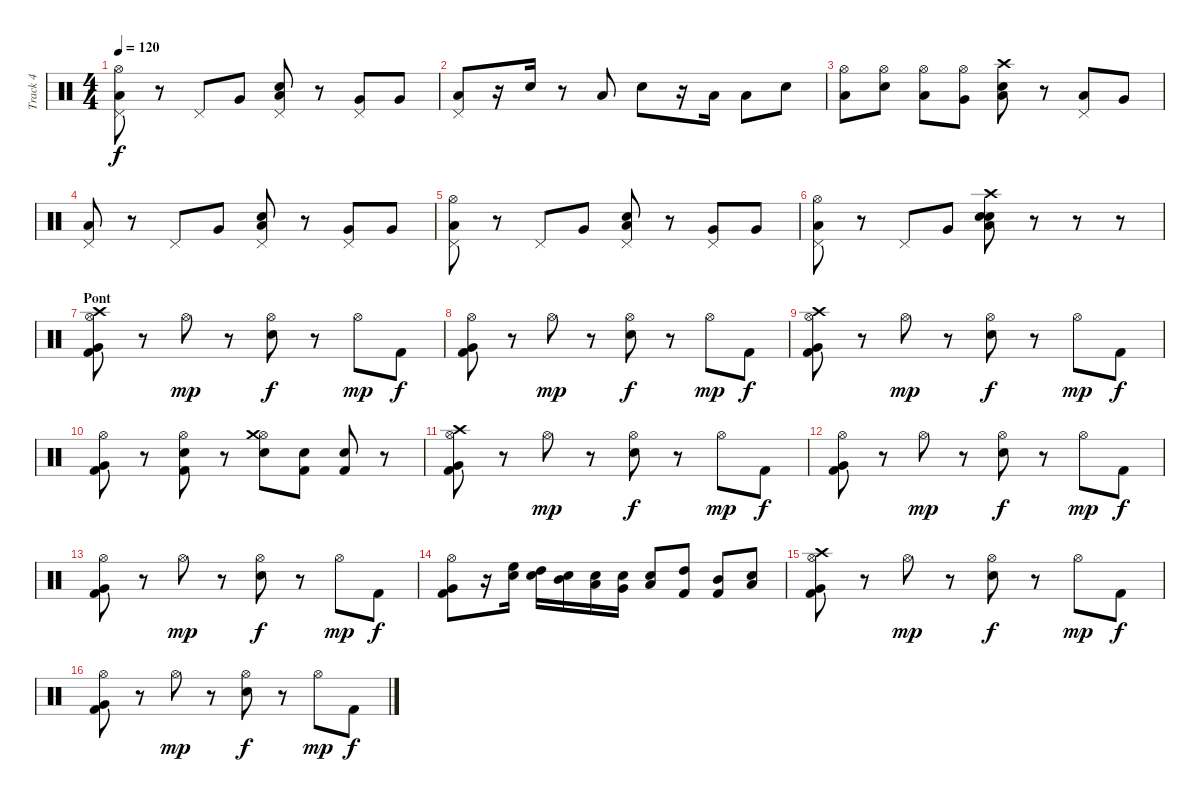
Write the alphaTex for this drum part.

\track ("Track 4" "Track 4") {instrument percussion}
\staff {score}
\articulation defaults
\ts (4 4)
\tempo 120
\clef neutral
\ks c
("Pedal Hi-Hat (hit)" "Low Tom (hit)" "Hi-Hat (open)").8{dy f} r.8 "Pedal Hi-Hat (hit)".8 "Very Low Tom (hit)".8 ("Pedal Hi-Hat (hit)" "Low Tom (hit)" "Electric Snare (hit)").8 r.8 ("Pedal Hi-Hat (hit)" "Very Low Tom (hit)").8 "Very Low Tom (hit)".8 |
("Pedal Hi-Hat (hit)" "Low Tom (hit)").8 r.16 "Electric Snare (hit)".16 r.8 "Low Tom (hit)".8 "Electric Snare (hit)".8 r.16 "Low Tom (hit)".16 "Low Tom (hit)".8 "Electric Snare (hit)".8 |
("Low Tom (hit)" "Hi-Hat (open)").8 ("Electric Snare (hit)" "Hi-Hat (open)").8 ("Low Tom (hit)" "Hi-Hat (open)").8 ("Very Low Tom (hit)" "Hi-Hat (open)").8 ("Low Tom (hit)" "Electric Snare (hit)" "Crash high (hit)").8 r.8 ("Pedal Hi-Hat (hit)" "Low Floor Tom (hit)").8 "Very Low Tom (hit)".8 |
("Pedal Hi-Hat (hit)" "Low Tom (hit)").8 r.8 "Pedal Hi-Hat (hit)".8 "Very Low Tom (hit)".8 ("Pedal Hi-Hat (hit)" "Low Tom (hit)" "Electric Snare (hit)").8 r.8 ("Pedal Hi-Hat (hit)" "Very Low Tom (hit)").8 "Very Low Tom (hit)".8 |
("Pedal Hi-Hat (hit)" "Low Tom (hit)" "Hi-Hat (open)").8 r.8 "Pedal Hi-Hat (hit)".8 "Very Low Tom (hit)".8 ("Pedal Hi-Hat (hit)" "Low Tom (hit)" "Electric Snare (hit)").8 r.8 ("Pedal Hi-Hat (hit)" "Very Low Tom (hit)").8 "Very Low Tom (hit)".8 |
("Pedal Hi-Hat (hit)" "Low Tom (hit)" "Hi-Hat (open)").8 r.8 "Pedal Hi-Hat (hit)".8 "Very Low Tom (hit)".8 ("Low Tom (hit)" "Electric Snare (hit)" "Crash high (hit)" "Snare (hit) 2").8 r.8 r.8 r.8 |
\section ("" "Pont")
("Hi-Hat (open)" "Kick (hit) 2" "Very Low Tom (hit)" "Crash high (hit)").8 r.8 "Hi-Hat (open)".8{dy mp} r.8 ("Hi-Hat (open)" "Snare (hit) 2").8{dy f} r.8 "Hi-Hat (open)".8{dy mp} "Kick (hit) 2".8{dy f} |
("Hi-Hat (open)" "Kick (hit) 2" "Very Low Tom (hit)").8 r.8 "Hi-Hat (open)".8{dy mp} r.8 ("Hi-Hat (open)" "Snare (hit) 2").8{dy f} r.8 "Hi-Hat (open)".8{dy mp} "Kick (hit) 2".8{dy f} |
("Hi-Hat (open)" "Kick (hit) 2" "Very Low Tom (hit)" "Crash high (hit)").8 r.8 "Hi-Hat (open)".8{dy mp} r.8 ("Hi-Hat (open)" "Snare (hit) 2").8{dy f} r.8 "Hi-Hat (open)".8{dy mp} "Kick (hit) 2".8{dy f} |
("Hi-Hat (open)" "Kick (hit) 2" "Very Low Tom (hit)").8 r.8 ("Hi-Hat (open)" "Kick (hit) 2" "Electric Snare (hit)").8 r.8 ("Hi-Hat (open)" "Electric Snare (hit)" "Crash medium (hit)").8 ("Kick (hit) 2" "Electric Snare (hit)").8 ("Kick (hit) 2" "Electric Snare (hit)").8 r.8 |
("Hi-Hat (open)" "Kick (hit) 2" "Very Low Tom (hit)" "Crash high (hit)").8 r.8 "Hi-Hat (open)".8{dy mp} r.8 ("Hi-Hat (open)" "Snare (hit) 2").8{dy f} r.8 "Hi-Hat (open)".8{dy mp} "Kick (hit) 2".8{dy f} |
("Hi-Hat (open)" "Kick (hit) 2" "Very Low Tom (hit)").8 r.8 "Hi-Hat (open)".8{dy mp} r.8 ("Hi-Hat (open)" "Snare (hit) 2").8{dy f} r.8 "Hi-Hat (open)".8{dy mp} "Kick (hit) 2".8{dy f} |
("Hi-Hat (open)" "Kick (hit) 2" "Very Low Tom (hit)").8 r.8 "Hi-Hat (open)".8{dy mp} r.8 ("Hi-Hat (open)" "Snare (hit) 2").8{dy f} r.8 "Hi-Hat (open)".8{dy mp} "Kick (hit) 2".8{dy f} |
("Hi-Hat (open)" "Kick (hit) 2" "Very Low Tom (hit)").8 r.16 ("High Floor Tom (hit)" "Electric Snare (hit)").16 ("High Tom (hit)" "Electric Snare (hit)").16 ("Mid Tom (hit)" "Electric Snare (hit)").16 ("Low Tom (hit)" "Electric Snare (hit)").16 ("Very Low Tom (hit)" "Electric Snare (hit)").16 ("Low Floor Tom (hit)" "Electric Snare (hit)").8 ("High Tom (hit)" "Kick (hit) 2").8 ("Mid Tom (hit)" "Kick (hit) 2").8 ("Low Tom (hit)" "Electric Snare (hit)").8 |
("Hi-Hat (open)" "Kick (hit) 2" "Very Low Tom (hit)" "Crash high (hit)").8 r.8 "Hi-Hat (open)".8{dy mp} r.8 ("Hi-Hat (open)" "Snare (hit) 2").8{dy f} r.8 "Hi-Hat (open)".8{dy mp} "Kick (hit) 2".8{dy f} |
("Hi-Hat (open)" "Kick (hit) 2" "Very Low Tom (hit)").8 r.8 "Hi-Hat (open)".8{dy mp} r.8 ("Hi-Hat (open)" "Snare (hit) 2").8{dy f} r.8 "Hi-Hat (open)".8{dy mp} "Kick (hit) 2".8{dy f}
